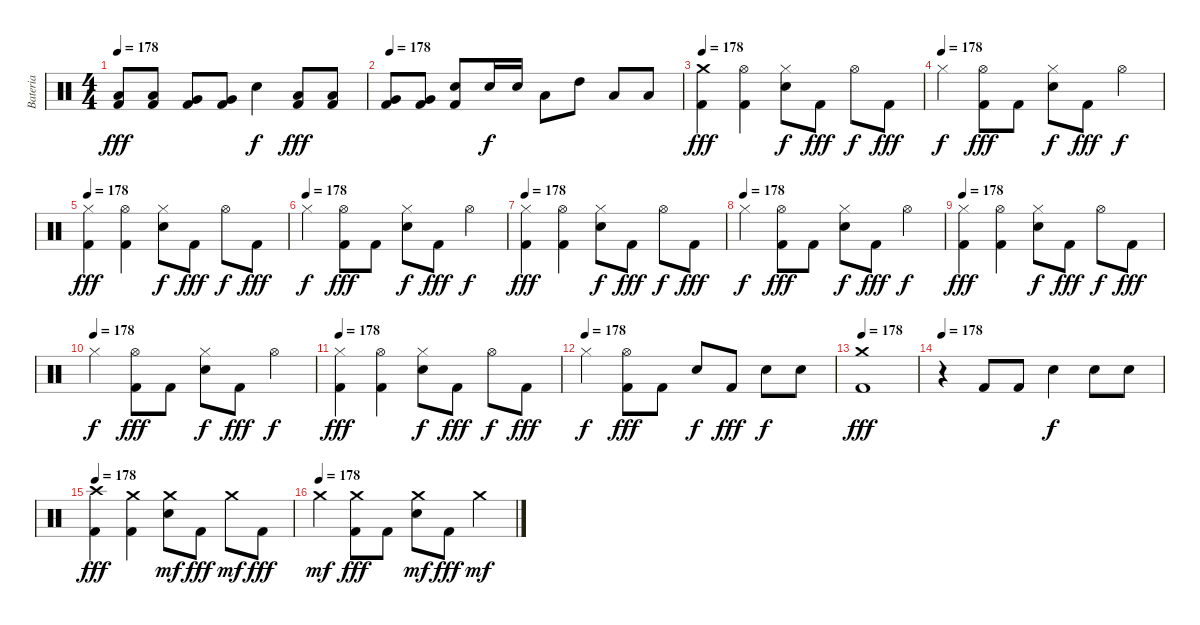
\track ("Bateria" "Bateria") {instrument percussion}
\staff {score}
\articulation defaults
\ts (4 4)
\tempo 178
\clef neutral
\ks c
("Low Tom (hit)" "Kick (hit) 2").8{dy fff} ("Low Tom (hit)" "Kick (hit) 2").8 ("Very Low Tom (hit)" "Kick (hit) 2").8 ("Very Low Tom (hit)" "Kick (hit) 2").8 "Electric Snare (hit)".4{dy f} ("Low Tom (hit)" "Kick (hit) 2").8{dy fff} ("Low Tom (hit)" "Kick (hit) 2").8 |
\tempo 178
("Very Low Tom (hit)" "Kick (hit) 2").8 ("Very Low Tom (hit)" "Kick (hit) 2").8 ("Electric Snare (hit)" "Kick (hit) 2").8 "Electric Snare (hit)".16{dy f} "Electric Snare (hit)".16 "Low Tom (hit)".8 "High Tom (hit)".8 "Low Tom (hit)".8 "Low Tom (hit)".8 |
\tempo 178
("Crash medium (hit)" "Kick (hit) 2").4{dy fff} ("Hi-Hat (open)" "Kick (hit) 2").4 ("Hi-Hat (closed)" "Electric Snare (hit)").8{dy f} "Kick (hit) 2".8{dy fff} "Hi-Hat (open)".8{dy f} "Kick (hit) 2".8{dy fff} |
\tempo (178)
"Hi-Hat (closed)".4{dy f} ("Hi-Hat (open)" "Kick (hit) 2").8{dy fff} "Kick (hit) 2".8 ("Hi-Hat (closed)" "Electric Snare (hit)").8{dy f} "Kick (hit) 2".8{dy fff} "Hi-Hat (open)".4{dy f} |
\tempo 178
("Hi-Hat (closed)" "Kick (hit) 2").4{dy fff} ("Hi-Hat (open)" "Kick (hit) 2").4 ("Hi-Hat (closed)" "Electric Snare (hit)").8{dy f} "Kick (hit) 2".8{dy fff} "Hi-Hat (open)".8{dy f} "Kick (hit) 2".8{dy fff} |
\tempo (178)
"Hi-Hat (closed)".4{dy f} ("Hi-Hat (open)" "Kick (hit) 2").8{dy fff} "Kick (hit) 2".8 ("Hi-Hat (closed)" "Electric Snare (hit)").8{dy f} "Kick (hit) 2".8{dy fff} "Hi-Hat (open)".4{dy f} |
\tempo 178
("Hi-Hat (closed)" "Kick (hit) 2").4{dy fff} ("Hi-Hat (open)" "Kick (hit) 2").4 ("Hi-Hat (closed)" "Electric Snare (hit)").8{dy f} "Kick (hit) 2".8{dy fff} "Hi-Hat (open)".8{dy f} "Kick (hit) 2".8{dy fff} |
\tempo (178)
"Hi-Hat (closed)".4{dy f} ("Hi-Hat (open)" "Kick (hit) 2").8{dy fff} "Kick (hit) 2".8 ("Hi-Hat (closed)" "Electric Snare (hit)").8{dy f} "Kick (hit) 2".8{dy fff} "Hi-Hat (open)".4{dy f} |
\tempo 178
("Hi-Hat (closed)" "Kick (hit) 2").4{dy fff} ("Hi-Hat (open)" "Kick (hit) 2").4 ("Hi-Hat (closed)" "Electric Snare (hit)").8{dy f} "Kick (hit) 2".8{dy fff} "Hi-Hat (open)".8{dy f} "Kick (hit) 2".8{dy fff} |
\tempo (178)
"Hi-Hat (closed)".4{dy f} ("Hi-Hat (open)" "Kick (hit) 2").8{dy fff} "Kick (hit) 2".8 ("Hi-Hat (closed)" "Electric Snare (hit)").8{dy f} "Kick (hit) 2".8{dy fff} "Hi-Hat (open)".4{dy f} |
\tempo 178
("Hi-Hat (closed)" "Kick (hit) 2").4{dy fff} ("Hi-Hat (open)" "Kick (hit) 2").4 ("Hi-Hat (closed)" "Electric Snare (hit)").8{dy f} "Kick (hit) 2".8{dy fff} "Hi-Hat (open)".8{dy f} "Kick (hit) 2".8{dy fff} |
\tempo (178)
"Hi-Hat (closed)".4{dy f} ("Hi-Hat (open)" "Kick (hit) 2").8{dy fff} "Kick (hit) 2".8 "Electric Snare (hit)".8{dy f} "Kick (hit) 2".8{dy fff} "Electric Snare (hit)".8{dy f} "Electric Snare (hit)".8 |
\tempo 178
("Crash medium (hit)" "Kick (hit) 2").1{dy fff} |
\tempo 178
r.4 "Kick (hit) 2".8 "Kick (hit) 2".8 "Electric Snare (hit)".4{dy f} "Electric Snare (hit)".8 "Electric Snare (hit)".8 |
\tempo 178
("Crash high (hit)" "Kick (hit) 2").4{dy fff} ("Crash medium (hit)" "Kick (hit) 2").4 ("Crash medium (hit)" "Electric Snare (hit)").8{dy mf} "Kick (hit) 2".8{dy fff} "Crash medium (hit)".8{dy mf} "Kick (hit) 2".8{dy fff} |
\tempo (178)
"Crash medium (hit)".4{dy mf} ("Crash medium (hit)" "Kick (hit) 2").8{dy fff} "Kick (hit) 2".8 ("Crash medium (hit)" "Electric Snare (hit)").8{dy mf} "Kick (hit) 2".8{dy fff} "Crash medium (hit)".4{dy mf}
